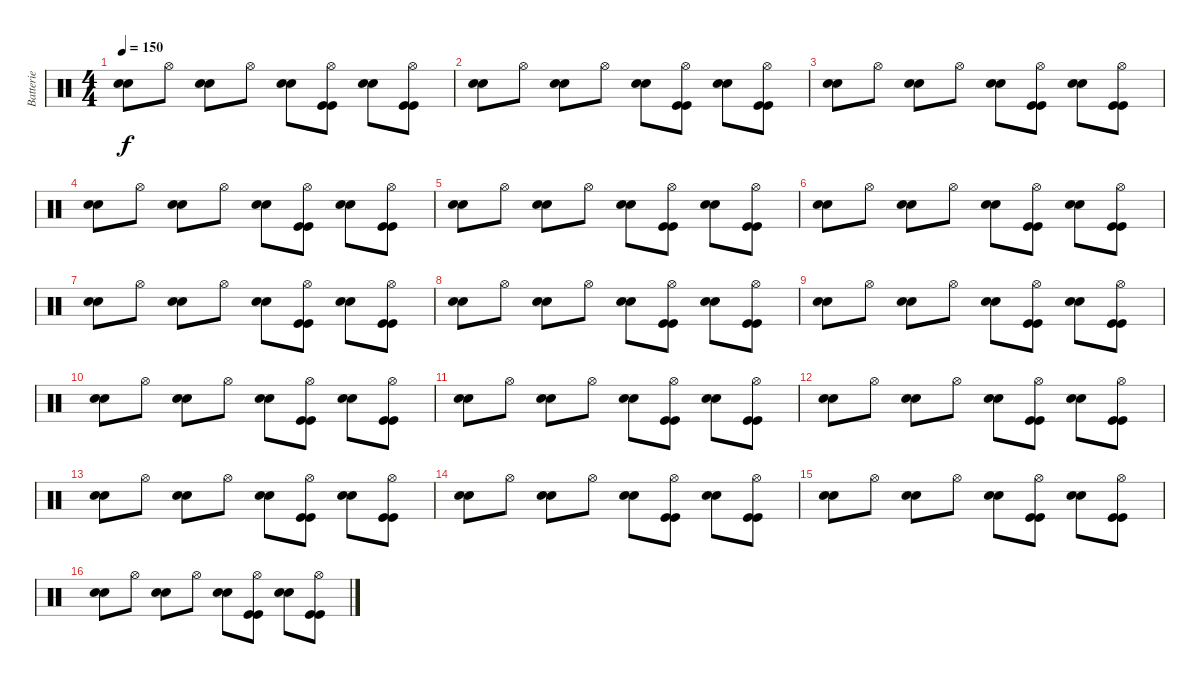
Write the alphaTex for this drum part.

\track ("Batterie" "Batterie") {instrument percussion}
\staff {score}
\articulation defaults
\ts (4 4)
\tempo 150
\clef neutral
\ks c
("Electric Snare (hit)" "Electric Snare (hit)").8{dy f} "Hi-Hat (open)".8 ("Electric Snare (hit)" "Electric Snare (hit)").8 "Hi-Hat (open)".8 ("Electric Snare (hit)" "Electric Snare (hit)").8 ("Hi-Hat (open)" "Kick (hit)" "Kick (hit)").8 ("Electric Snare (hit)" "Electric Snare (hit)").8 ("Hi-Hat (open)" "Kick (hit)" "Kick (hit)").8 |
("Electric Snare (hit)" "Electric Snare (hit)").8 "Hi-Hat (open)".8 ("Electric Snare (hit)" "Electric Snare (hit)").8 "Hi-Hat (open)".8 ("Electric Snare (hit)" "Electric Snare (hit)").8 ("Hi-Hat (open)" "Kick (hit)" "Kick (hit)").8 ("Electric Snare (hit)" "Electric Snare (hit)").8 ("Hi-Hat (open)" "Kick (hit)" "Kick (hit)").8 |
("Electric Snare (hit)" "Electric Snare (hit)").8 "Hi-Hat (open)".8 ("Electric Snare (hit)" "Electric Snare (hit)").8 "Hi-Hat (open)".8 ("Electric Snare (hit)" "Electric Snare (hit)").8 ("Hi-Hat (open)" "Kick (hit)" "Kick (hit)").8 ("Electric Snare (hit)" "Electric Snare (hit)").8 ("Hi-Hat (open)" "Kick (hit)" "Kick (hit)").8 |
("Electric Snare (hit)" "Electric Snare (hit)").8 "Hi-Hat (open)".8 ("Electric Snare (hit)" "Electric Snare (hit)").8 "Hi-Hat (open)".8 ("Electric Snare (hit)" "Electric Snare (hit)").8 ("Hi-Hat (open)" "Kick (hit)" "Kick (hit)").8 ("Electric Snare (hit)" "Electric Snare (hit)").8 ("Hi-Hat (open)" "Kick (hit)" "Kick (hit)").8 |
("Electric Snare (hit)" "Electric Snare (hit)").8 "Hi-Hat (open)".8 ("Electric Snare (hit)" "Electric Snare (hit)").8 "Hi-Hat (open)".8 ("Electric Snare (hit)" "Electric Snare (hit)").8 ("Hi-Hat (open)" "Kick (hit)" "Kick (hit)").8 ("Electric Snare (hit)" "Electric Snare (hit)").8 ("Hi-Hat (open)" "Kick (hit)" "Kick (hit)").8 |
("Electric Snare (hit)" "Electric Snare (hit)").8 "Hi-Hat (open)".8 ("Electric Snare (hit)" "Electric Snare (hit)").8 "Hi-Hat (open)".8 ("Electric Snare (hit)" "Electric Snare (hit)").8 ("Hi-Hat (open)" "Kick (hit)" "Kick (hit)").8 ("Electric Snare (hit)" "Electric Snare (hit)").8 ("Hi-Hat (open)" "Kick (hit)" "Kick (hit)").8 |
("Electric Snare (hit)" "Electric Snare (hit)").8 "Hi-Hat (open)".8 ("Electric Snare (hit)" "Electric Snare (hit)").8 "Hi-Hat (open)".8 ("Electric Snare (hit)" "Electric Snare (hit)").8 ("Hi-Hat (open)" "Kick (hit)" "Kick (hit)").8 ("Electric Snare (hit)" "Electric Snare (hit)").8 ("Hi-Hat (open)" "Kick (hit)" "Kick (hit)").8 |
("Electric Snare (hit)" "Electric Snare (hit)").8 "Hi-Hat (open)".8 ("Electric Snare (hit)" "Electric Snare (hit)").8 "Hi-Hat (open)".8 ("Electric Snare (hit)" "Electric Snare (hit)").8 ("Hi-Hat (open)" "Kick (hit)" "Kick (hit)").8 ("Electric Snare (hit)" "Electric Snare (hit)").8 ("Hi-Hat (open)" "Kick (hit)" "Kick (hit)").8 |
("Electric Snare (hit)" "Electric Snare (hit)").8 "Hi-Hat (open)".8 ("Electric Snare (hit)" "Electric Snare (hit)").8 "Hi-Hat (open)".8 ("Electric Snare (hit)" "Electric Snare (hit)").8 ("Hi-Hat (open)" "Kick (hit)" "Kick (hit)").8 ("Electric Snare (hit)" "Electric Snare (hit)").8 ("Hi-Hat (open)" "Kick (hit)" "Kick (hit)").8 |
("Electric Snare (hit)" "Electric Snare (hit)").8 "Hi-Hat (open)".8 ("Electric Snare (hit)" "Electric Snare (hit)").8 "Hi-Hat (open)".8 ("Electric Snare (hit)" "Electric Snare (hit)").8 ("Hi-Hat (open)" "Kick (hit)" "Kick (hit)").8 ("Electric Snare (hit)" "Electric Snare (hit)").8 ("Hi-Hat (open)" "Kick (hit)" "Kick (hit)").8 |
("Electric Snare (hit)" "Electric Snare (hit)").8 "Hi-Hat (open)".8 ("Electric Snare (hit)" "Electric Snare (hit)").8 "Hi-Hat (open)".8 ("Electric Snare (hit)" "Electric Snare (hit)").8 ("Hi-Hat (open)" "Kick (hit)" "Kick (hit)").8 ("Electric Snare (hit)" "Electric Snare (hit)").8 ("Hi-Hat (open)" "Kick (hit)" "Kick (hit)").8 |
("Electric Snare (hit)" "Electric Snare (hit)").8 "Hi-Hat (open)".8 ("Electric Snare (hit)" "Electric Snare (hit)").8 "Hi-Hat (open)".8 ("Electric Snare (hit)" "Electric Snare (hit)").8 ("Hi-Hat (open)" "Kick (hit)" "Kick (hit)").8 ("Electric Snare (hit)" "Electric Snare (hit)").8 ("Hi-Hat (open)" "Kick (hit)" "Kick (hit)").8 |
("Electric Snare (hit)" "Electric Snare (hit)").8 "Hi-Hat (open)".8 ("Electric Snare (hit)" "Electric Snare (hit)").8 "Hi-Hat (open)".8 ("Electric Snare (hit)" "Electric Snare (hit)").8 ("Hi-Hat (open)" "Kick (hit)" "Kick (hit)").8 ("Electric Snare (hit)" "Electric Snare (hit)").8 ("Hi-Hat (open)" "Kick (hit)" "Kick (hit)").8 |
("Electric Snare (hit)" "Electric Snare (hit)").8 "Hi-Hat (open)".8 ("Electric Snare (hit)" "Electric Snare (hit)").8 "Hi-Hat (open)".8 ("Electric Snare (hit)" "Electric Snare (hit)").8 ("Hi-Hat (open)" "Kick (hit)" "Kick (hit)").8 ("Electric Snare (hit)" "Electric Snare (hit)").8 ("Hi-Hat (open)" "Kick (hit)" "Kick (hit)").8 |
("Electric Snare (hit)" "Electric Snare (hit)").8 "Hi-Hat (open)".8 ("Electric Snare (hit)" "Electric Snare (hit)").8 "Hi-Hat (open)".8 ("Electric Snare (hit)" "Electric Snare (hit)").8 ("Hi-Hat (open)" "Kick (hit)" "Kick (hit)").8 ("Electric Snare (hit)" "Electric Snare (hit)").8 ("Hi-Hat (open)" "Kick (hit)" "Kick (hit)").8 |
("Electric Snare (hit)" "Electric Snare (hit)").8 "Hi-Hat (open)".8 ("Electric Snare (hit)" "Electric Snare (hit)").8 "Hi-Hat (open)".8 ("Electric Snare (hit)" "Electric Snare (hit)").8 ("Hi-Hat (open)" "Kick (hit)" "Kick (hit)").8 ("Electric Snare (hit)" "Electric Snare (hit)").8 ("Hi-Hat (open)" "Kick (hit)" "Kick (hit)").8
